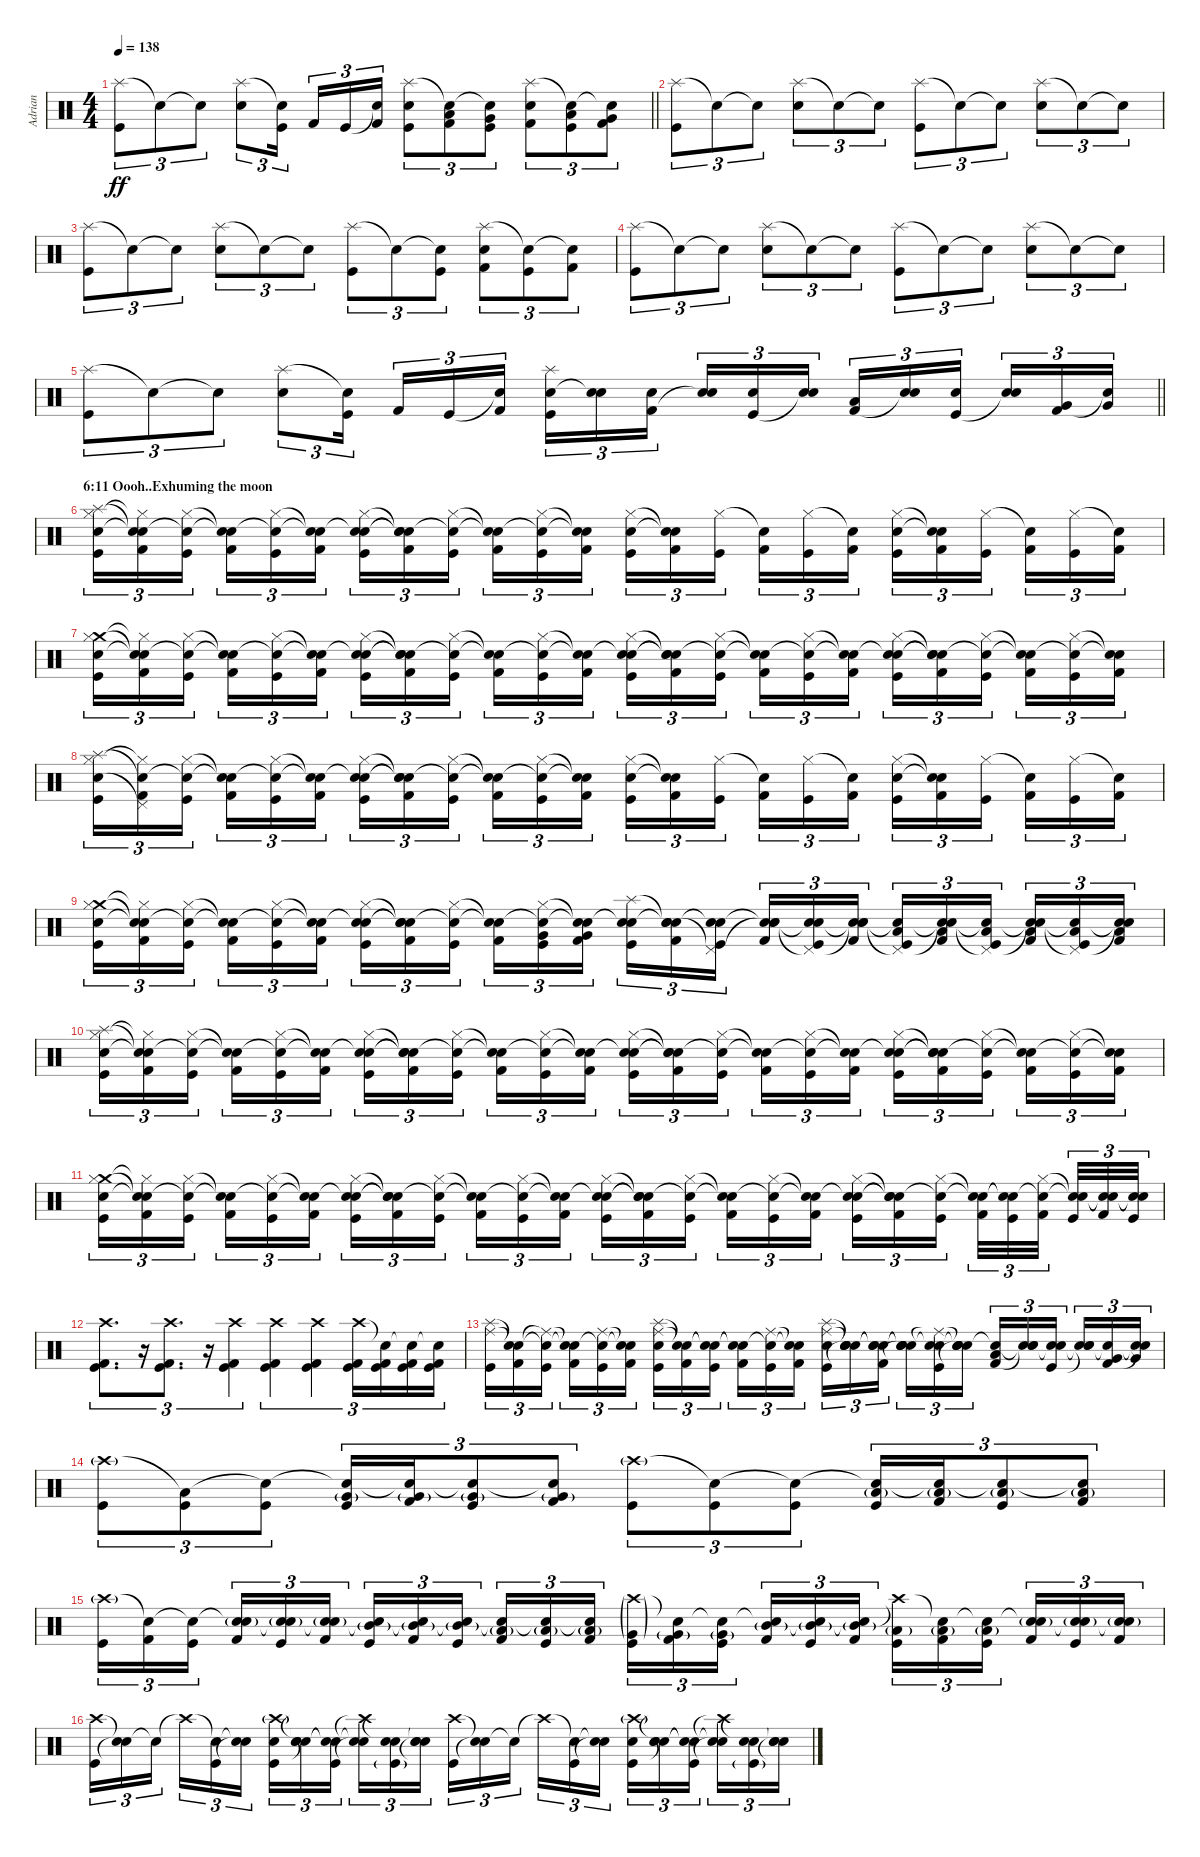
\track ("Adrian" "Adrian") {instrument percussion}
\staff {score}
\articulation defaults
\ts (4 4)
\tempo 138
\clef neutral
\barLineRight lightlight
\ks c
("Splash (hit)" "Kick (hit)").8{tu (3 2) dy ff} "Snare (hit)"{t}.8{tu (3 2)} "Snare (hit)"{t}.8{tu (3 2)} ("Splash (hit)" "Electric Snare (hit)").8{tu (3 2)} ("Snare (hit)"{t} "Kick (hit)").16{tu (3 2) beam splitsecondary} "Kick (hit) 2".16{tu (3 2)} "Kick (hit)".16{tu (3 2)} ("Snare (hit)"{t} "Kick (hit) 2").16{tu (3 2)} ("Splash (hit)" "Electric Snare (hit)" "Kick (hit)").8{tu (3 2)} ("Snare (hit)"{t} "Low Tom (hit)" "Kick (hit) 2").8{tu (3 2)} ("Snare (hit)"{t} "Very Low Tom (hit)" "Kick (hit)").8{tu (3 2)} ("Splash (hit)" "Electric Snare (hit)" "Kick (hit) 2").8{tu (3 2)} ("Snare (hit)"{t} "Low Tom (hit)" "Kick (hit)").8{tu (3 2)} ("Snare (hit)"{t} "Very Low Tom (hit)" "Kick (hit) 2").8{tu (3 2)} |
("Splash (hit)" "Kick (hit)").8{tu (3 2)} "Snare (hit)"{t}.8{tu (3 2)} "Snare (hit)"{t}.8{tu (3 2)} ("Splash (hit)" "Electric Snare (hit)").8{tu (3 2)} "Snare (hit)"{t}.8{tu (3 2)} "Snare (hit)"{t}.8{tu (3 2)} ("Splash (hit)" "Kick (hit)").8{tu (3 2)} "Snare (hit)"{t}.8{tu (3 2)} "Snare (hit)"{t}.8{tu (3 2)} ("Splash (hit)" "Electric Snare (hit)").8{tu (3 2)} "Snare (hit)"{t}.8{tu (3 2)} "Snare (hit)"{t}.8{tu (3 2)} |
("Splash (hit)" "Kick (hit)").8{tu (3 2)} "Snare (hit)"{t}.8{tu (3 2)} "Snare (hit)"{t}.8{tu (3 2)} ("Splash (hit)" "Electric Snare (hit)").8{tu (3 2)} "Snare (hit)"{t}.8{tu (3 2)} "Snare (hit)"{t}.8{tu (3 2)} ("Splash (hit)" "Kick (hit)").8{tu (3 2)} "Snare (hit)"{t}.8{tu (3 2)} ("Snare (hit)"{t} "Kick (hit)").8{tu (3 2)} ("Splash (hit)" "Electric Snare (hit)" "Kick (hit) 2").8{tu (3 2)} ("Snare (hit)"{t} "Kick (hit)").8{tu (3 2)} ("Snare (hit)"{t} "Kick (hit) 2").8{tu (3 2)} |
("Splash (hit)" "Kick (hit)").8{tu (3 2)} "Snare (hit)"{t}.8{tu (3 2)} "Snare (hit)"{t}.8{tu (3 2)} ("Splash (hit)" "Electric Snare (hit)").8{tu (3 2)} "Snare (hit)"{t}.8{tu (3 2)} "Snare (hit)"{t}.8{tu (3 2)} ("Splash (hit)" "Kick (hit)").8{tu (3 2)} "Snare (hit)"{t}.8{tu (3 2)} "Snare (hit)"{t}.8{tu (3 2)} ("Splash (hit)" "Electric Snare (hit)").8{tu (3 2)} "Snare (hit)"{t}.8{tu (3 2)} "Snare (hit)"{t}.8{tu (3 2)} |
\barLineRight lightlight
("Splash (hit)" "Kick (hit)").8{tu (3 2)} "Snare (hit)"{t}.8{tu (3 2)} "Snare (hit)"{t}.8{tu (3 2)} ("Splash (hit)" "Electric Snare (hit)").8{tu (3 2)} ("Snare (hit)"{t} "Kick (hit)").16{tu (3 2) beam splitsecondary} "Kick (hit) 2".16{tu (3 2)} "Kick (hit)".16{tu (3 2)} ("Snare (hit)"{t} "Kick (hit) 2").16{tu (3 2)} ("Splash (hit)" "Electric Snare (hit)" "Kick (hit)").16{tu (3 2)} ("Electric Snare (hit)" "Snare (hit)"{t}).16{tu (3 2)} ("Electric Snare (hit)" "Kick (hit) 2").16{tu (3 2) beam splitsecondary} ("Electric Snare (hit)" "Snare (hit)"{t}).16{tu (3 2)} ("Electric Snare (hit)" "Kick (hit)").16{tu (3 2)} ("Electric Snare (hit)" "Snare (hit)"{t}).16{tu (3 2)} ("Low Tom (hit)" "Kick (hit) 2").16{tu (3 2)} ("Electric Snare (hit)" "Snare (hit)"{t}).16{tu (3 2)} ("Electric Snare (hit)" "Kick (hit)").16{tu (3 2) beam splitsecondary} ("Electric Snare (hit)" "Snare (hit)"{t}).16{tu (3 2)} ("Very Low Tom (hit)" "Kick (hit) 2").16{tu (3 2)} ("Very Low Tom (hit)" "Snare (hit)"{t}).16{tu (3 2)} |
\section ("" "6:11 Oooh..Exhuming the moon")
("Splash (hit)" "Hi-Hat (closed)" "Electric Snare (hit)" "Kick (hit)").16{tu (3 2)} ("Snare (hit)"{t} "Hi-Hat (closed)"{t} "Snare (hit)"{t} "Kick (hit) 2").16{tu (3 2)} ("Snare (hit)"{t} "Hi-Hat (closed)" "Kick (hit)").16{tu (3 2) beam splitsecondary} ("Snare (hit)"{t} "Snare (hit)"{t} "Kick (hit) 2").16{tu (3 2)} ("Snare (hit)"{t} "Hi-Hat (closed)" "Kick (hit)").16{tu (3 2)} ("Snare (hit)"{t} "Snare (hit)"{t} "Kick (hit) 2").16{tu (3 2)} ("Snare (hit)"{t} "Hi-Hat (closed)" "Electric Snare (hit)" "Kick (hit)").16{tu (3 2)} ("Snare (hit)"{t} "Snare (hit)"{t} "Snare (hit)"{t} "Kick (hit) 2").16{tu (3 2)} ("Snare (hit)"{t} "Hi-Hat (closed)" "Kick (hit)").16{tu (3 2) beam splitsecondary} ("Snare (hit)"{t} "Snare (hit)"{t} "Kick (hit) 2").16{tu (3 2)} ("Snare (hit)"{t} "Hi-Hat (closed)" "Kick (hit)").16{tu (3 2)} ("Snare (hit)"{t} "Snare (hit)"{t} "Kick (hit) 2").16{tu (3 2)} ("Hi-Hat (closed)" "Electric Snare (hit)" "Kick (hit)").16{tu (3 2)} ("Snare (hit)"{t} "Snare (hit)"{t} "Kick (hit) 2").16{tu (3 2)} ("Hi-Hat (closed)" "Kick (hit)").16{tu (3 2) beam splitsecondary} ("Snare (hit)"{t} "Kick (hit) 2").16{tu (3 2)} ("Hi-Hat (closed)" "Kick (hit)").16{tu (3 2)} ("Snare (hit)"{t} "Kick (hit) 2").16{tu (3 2)} ("Hi-Hat (closed)" "Snare (hit) 2" "Kick (hit)").16{tu (3 2)} ("Snare (hit)"{t} "Snare (hit)"{t} "Kick (hit) 2").16{tu (3 2)} ("Hi-Hat (closed)" "Kick (hit)").16{tu (3 2) beam splitsecondary} ("Snare (hit)"{t} "Kick (hit) 2").16{tu (3 2)} ("Hi-Hat (closed)" "Kick (hit)").16{tu (3 2)} ("Snare (hit)"{t} "Kick (hit) 2").16{tu (3 2)} |
("Crash medium (hit)" "Hi-Hat (closed)" "Electric Snare (hit)" "Kick (hit)").16{tu (3 2)} ("Snare (hit)"{t} "Hi-Hat (closed)"{t} "Snare (hit)"{t} "Kick (hit) 2").16{tu (3 2)} ("Snare (hit)"{t} "Hi-Hat (closed)" "Kick (hit)").16{tu (3 2) beam splitsecondary} ("Snare (hit)"{t} "Snare (hit)"{t} "Kick (hit) 2").16{tu (3 2)} ("Snare (hit)"{t} "Hi-Hat (closed)" "Kick (hit)").16{tu (3 2)} ("Snare (hit)"{t} "Snare (hit)"{t} "Kick (hit) 2").16{tu (3 2)} ("Snare (hit)"{t} "Hi-Hat (closed)" "Electric Snare (hit)" "Kick (hit)").16{tu (3 2)} ("Snare (hit)"{t} "Snare (hit)"{t} "Snare (hit)"{t} "Kick (hit) 2").16{tu (3 2)} ("Snare (hit)"{t} "Hi-Hat (closed)" "Kick (hit)").16{tu (3 2) beam splitsecondary} ("Snare (hit)"{t} "Snare (hit)"{t} "Kick (hit) 2").16{tu (3 2)} ("Snare (hit)"{t} "Hi-Hat (closed)" "Kick (hit)").16{tu (3 2)} ("Snare (hit)"{t} "Snare (hit)"{t} "Kick (hit) 2").16{tu (3 2)} ("Snare (hit)"{t} "Hi-Hat (closed)" "Electric Snare (hit)" "Kick (hit)").16{tu (3 2)} ("Snare (hit)"{t} "Snare (hit)"{t} "Snare (hit)"{t} "Kick (hit) 2").16{tu (3 2)} ("Snare (hit)"{t} "Hi-Hat (closed)" "Kick (hit)").16{tu (3 2) beam splitsecondary} ("Snare (hit)"{t} "Snare (hit)"{t} "Kick (hit) 2").16{tu (3 2)} ("Snare (hit)"{t} "Hi-Hat (closed)" "Kick (hit)").16{tu (3 2)} ("Snare (hit)"{t} "Snare (hit)"{t} "Kick (hit) 2").16{tu (3 2)} ("Snare (hit)"{t} "Hi-Hat (closed)" "Electric Snare (hit)" "Kick (hit)").16{tu (3 2)} ("Snare (hit)"{t} "Snare (hit)"{t} "Snare (hit)"{t} "Kick (hit) 2").16{tu (3 2)} ("Snare (hit)"{t} "Hi-Hat (closed)" "Kick (hit)").16{tu (3 2) beam splitsecondary} ("Snare (hit)"{t} "Snare (hit)"{t} "Kick (hit) 2").16{tu (3 2)} ("Snare (hit)"{t} "Hi-Hat (closed)" "Kick (hit)").16{tu (3 2)} ("Snare (hit)"{t} "Snare (hit)"{t} "Kick (hit) 2").16{tu (3 2)} |
("Splash (hit)" "Hi-Hat (closed)" "Electric Snare (hit)" "Kick (hit)").16{tu (3 2)} ("Snare (hit)"{t} "Hi-Hat (closed)"{t} "Pedal Hi-Hat (hit)"{t} "Kick (hit) 2").16{tu (3 2)} ("Snare (hit)"{t} "Hi-Hat (closed)" "Kick (hit)").16{tu (3 2) beam splitsecondary} ("Snare (hit)"{t} "Snare (hit)"{t} "Kick (hit) 2").16{tu (3 2)} ("Snare (hit)"{t} "Hi-Hat (closed)" "Kick (hit)").16{tu (3 2)} ("Snare (hit)"{t} "Snare (hit)"{t} "Kick (hit) 2").16{tu (3 2)} ("Snare (hit)"{t} "Hi-Hat (closed)" "Electric Snare (hit)" "Kick (hit)").16{tu (3 2)} ("Snare (hit)"{t} "Snare (hit)"{t} "Snare (hit)"{t} "Kick (hit) 2").16{tu (3 2)} ("Snare (hit)"{t} "Hi-Hat (closed)" "Kick (hit)").16{tu (3 2) beam splitsecondary} ("Snare (hit)"{t} "Snare (hit)"{t} "Kick (hit) 2").16{tu (3 2)} ("Snare (hit)"{t} "Hi-Hat (closed)" "Kick (hit)").16{tu (3 2)} ("Snare (hit)"{t} "Snare (hit)"{t} "Kick (hit) 2").16{tu (3 2)} ("Hi-Hat (closed)" "Electric Snare (hit)" "Kick (hit)").16{tu (3 2)} ("Snare (hit)"{t} "Snare (hit)"{t} "Kick (hit) 2").16{tu (3 2)} ("Hi-Hat (closed)" "Kick (hit)").16{tu (3 2) beam splitsecondary} ("Snare (hit)"{t} "Kick (hit) 2").16{tu (3 2)} ("Hi-Hat (closed)" "Kick (hit)").16{tu (3 2)} ("Snare (hit)"{t} "Kick (hit) 2").16{tu (3 2)} ("Hi-Hat (closed)" "Electric Snare (hit)" "Kick (hit)").16{tu (3 2)} ("Snare (hit)"{t} "Snare (hit)"{t} "Kick (hit) 2").16{tu (3 2)} ("Hi-Hat (closed)" "Kick (hit)").16{tu (3 2) beam splitsecondary} ("Snare (hit)"{t} "Kick (hit) 2").16{tu (3 2)} ("Hi-Hat (closed)" "Kick (hit)").16{tu (3 2)} ("Snare (hit)"{t} "Kick (hit) 2").16{tu (3 2)} |
("Crash medium (hit)" "Hi-Hat (closed)" "Electric Snare (hit)" "Kick (hit)").16{tu (3 2)} ("Snare (hit)"{t} "Hi-Hat (closed)"{t} "Snare (hit)"{t} "Kick (hit) 2").16{tu (3 2)} ("Snare (hit)"{t} "Hi-Hat (closed)" "Kick (hit)").16{tu (3 2) beam splitsecondary} ("Snare (hit)"{t} "Snare (hit)"{t} "Kick (hit) 2").16{tu (3 2)} ("Snare (hit)"{t} "Hi-Hat (closed)" "Kick (hit)").16{tu (3 2)} ("Snare (hit)"{t} "Snare (hit)"{t} "Kick (hit) 2").16{tu (3 2)} ("Snare (hit)"{t} "Hi-Hat (closed)" "Electric Snare (hit)" "Kick (hit)").16{tu (3 2)} ("Snare (hit)"{t} "Snare (hit)"{t} "Snare (hit)"{t} "Kick (hit) 2").16{tu (3 2)} ("Snare (hit)"{t} "Hi-Hat (closed)" "Kick (hit)").16{tu (3 2) beam splitsecondary} ("Snare (hit)"{t} "Snare (hit)"{t} "Kick (hit) 2").16{tu (3 2)} ("Snare (hit)"{t} "Hi-Hat (closed)" "Very Low Tom (hit)" "Kick (hit)").16{tu (3 2)} ("Snare (hit)"{t} "Snare (hit)"{t} "Very Low Tom (hit)" "Kick (hit) 2").16{tu (3 2)} ("Snare (hit)"{t} "Splash (hit)" "Electric Snare (hit)" "Kick (hit)").16{tu (3 2)} ("Snare (hit)"{t} "Snare (hit)"{t} "Electric Snare (hit)" "Kick (hit) 2").16{tu (3 2)} ("Snare (hit)"{t} "Pedal Hi-Hat (hit)"{t} "Electric Snare (hit)" "Kick (hit)").16{tu (3 2) beam splitsecondary} ("Snare (hit)"{t} "Snare (hit)"{t} "Electric Snare (hit)" "Kick (hit) 2").16{tu (3 2)} ("Snare (hit)"{t} "Pedal Hi-Hat (hit)"{t} "Electric Snare (hit)" "Kick (hit)").16{tu (3 2)} ("Snare (hit)"{t} "Snare (hit)"{t} "Electric Snare (hit)" "Kick (hit) 2").16{tu (3 2)} ("Snare (hit)"{t} "Pedal Hi-Hat (hit)"{t} "Low Floor Tom (hit)" "Kick (hit)").16{tu (3 2)} ("Snare (hit)"{t} "Snare (hit)"{t} "Low Floor Tom (hit)" "Kick (hit) 2").16{tu (3 2)} ("Snare (hit)"{t} "Pedal Hi-Hat (hit)"{t} "Low Floor Tom (hit)" "Kick (hit)").16{tu (3 2) beam splitsecondary} ("Snare (hit)"{t} "Snare (hit)"{t} "Low Floor Tom (hit)" "Kick (hit) 2").16{tu (3 2)} ("Snare (hit)"{t} "Pedal Hi-Hat (hit)"{t} "Low Floor Tom (hit)" "Kick (hit)").16{tu (3 2)} ("Snare (hit)"{t} "Snare (hit)"{t} "Low Floor Tom (hit)" "Kick (hit) 2").16{tu (3 2)} |
("Splash (hit)" "Hi-Hat (closed)" "Electric Snare (hit)" "Kick (hit)").16{tu (3 2)} ("Snare (hit)"{t} "Hi-Hat (closed)"{t} "Snare (hit)"{t} "Kick (hit) 2").16{tu (3 2)} ("Snare (hit)"{t} "Hi-Hat (closed)" "Kick (hit)").16{tu (3 2) beam splitsecondary} ("Snare (hit)"{t} "Snare (hit)"{t} "Kick (hit) 2").16{tu (3 2)} ("Snare (hit)"{t} "Hi-Hat (closed)" "Kick (hit)").16{tu (3 2)} ("Snare (hit)"{t} "Snare (hit)"{t} "Kick (hit) 2").16{tu (3 2)} ("Snare (hit)"{t} "Hi-Hat (closed)" "Electric Snare (hit)" "Kick (hit)").16{tu (3 2)} ("Snare (hit)"{t} "Snare (hit)"{t} "Snare (hit)"{t} "Kick (hit) 2").16{tu (3 2)} ("Snare (hit)"{t} "Hi-Hat (closed)" "Kick (hit)").16{tu (3 2) beam splitsecondary} ("Snare (hit)"{t} "Snare (hit)"{t} "Kick (hit) 2").16{tu (3 2)} ("Snare (hit)"{t} "Hi-Hat (closed)" "Kick (hit)").16{tu (3 2)} ("Snare (hit)"{t} "Snare (hit)"{t} "Kick (hit) 2").16{tu (3 2)} ("Snare (hit)"{t} "Hi-Hat (closed)" "Electric Snare (hit)" "Kick (hit)").16{tu (3 2)} ("Snare (hit)"{t} "Snare (hit)"{t} "Snare (hit)"{t} "Kick (hit) 2").16{tu (3 2)} ("Snare (hit)"{t} "Hi-Hat (closed)" "Kick (hit)").16{tu (3 2) beam splitsecondary} ("Snare (hit)"{t} "Snare (hit)"{t} "Kick (hit) 2").16{tu (3 2)} ("Snare (hit)"{t} "Hi-Hat (closed)" "Kick (hit)").16{tu (3 2)} ("Snare (hit)"{t} "Snare (hit)"{t} "Kick (hit) 2").16{tu (3 2)} ("Snare (hit)"{t} "Hi-Hat (closed)" "Electric Snare (hit)" "Kick (hit)").16{tu (3 2)} ("Snare (hit)"{t} "Snare (hit)"{t} "Snare (hit)"{t} "Kick (hit) 2").16{tu (3 2)} ("Snare (hit)"{t} "Hi-Hat (closed)" "Kick (hit)").16{tu (3 2) beam splitsecondary} ("Snare (hit)"{t} "Snare (hit)"{t} "Kick (hit) 2").16{tu (3 2)} ("Snare (hit)"{t} "Hi-Hat (closed)" "Kick (hit)").16{tu (3 2)} ("Snare (hit)"{t} "Snare (hit)"{t} "Kick (hit) 2").16{tu (3 2)} |
("Crash medium (hit)" "Hi-Hat (closed)" "Electric Snare (hit)" "Kick (hit)").16{tu (3 2)} ("Snare (hit)"{t} "Hi-Hat (closed)"{t} "Snare (hit)"{t} "Kick (hit) 2").16{tu (3 2)} ("Snare (hit)"{t} "Hi-Hat (closed)" "Kick (hit)").16{tu (3 2) beam splitsecondary} ("Snare (hit)"{t} "Snare (hit)"{t} "Kick (hit) 2").16{tu (3 2)} ("Snare (hit)"{t} "Hi-Hat (closed)" "Kick (hit)").16{tu (3 2)} ("Snare (hit)"{t} "Snare (hit)"{t} "Kick (hit) 2").16{tu (3 2)} ("Snare (hit)"{t} "Hi-Hat (closed)" "Electric Snare (hit)" "Kick (hit)").16{tu (3 2)} ("Snare (hit)"{t} "Snare (hit)"{t} "Snare (hit)"{t} "Kick (hit) 2").16{tu (3 2)} ("Snare (hit)"{t} "Hi-Hat (closed)" "Kick (hit)").16{tu (3 2) beam splitsecondary} ("Snare (hit)"{t} "Snare (hit)"{t} "Kick (hit) 2").16{tu (3 2)} ("Snare (hit)"{t} "Hi-Hat (closed)" "Kick (hit)").16{tu (3 2)} ("Snare (hit)"{t} "Snare (hit)"{t} "Kick (hit) 2").16{tu (3 2)} ("Snare (hit)"{t} "Hi-Hat (closed)" "Electric Snare (hit)" "Kick (hit)").16{tu (3 2)} ("Snare (hit)"{t} "Snare (hit)"{t} "Snare (hit)"{t} "Kick (hit) 2").16{tu (3 2)} ("Snare (hit)"{t} "Hi-Hat (closed)" "Kick (hit)").16{tu (3 2) beam splitsecondary} ("Snare (hit)"{t} "Snare (hit)"{t} "Kick (hit) 2").16{tu (3 2)} ("Snare (hit)"{t} "Hi-Hat (closed)" "Kick (hit)").16{tu (3 2)} ("Snare (hit)"{t} "Snare (hit)"{t} "Kick (hit) 2").16{tu (3 2)} ("Snare (hit)"{t} "Hi-Hat (closed)" "Electric Snare (hit)" "Kick (hit)").16{tu (3 2)} ("Snare (hit)"{t} "Snare (hit)"{t} "Snare (hit)"{t} "Kick (hit) 2").16{tu (3 2)} ("Snare (hit)"{t} "Hi-Hat (closed)" "Kick (hit)").16{tu (3 2) beam splitsecondary} ("Snare (hit)"{t} "Snare (hit)"{t} "Kick (hit) 2").32{tu (3 2)} ("Snare (hit)"{t} "Snare (hit)"{t} "Kick (hit)").32{tu (3 2)} ("Snare (hit)"{t} "Hi-Hat (closed)" "Kick (hit) 2").32{tu (3 2) beam splitsecondary} ("Snare (hit)"{t} "Snare (hit)"{t} "Kick (hit)").32{tu (3 2)} ("Snare (hit)"{t} "Snare (hit)"{t} "Kick (hit) 2").32{tu (3 2)} ("Snare (hit)"{t} "Snare (hit)"{t} "Kick (hit)").32{tu (3 2)} |
("Crash high (hit)" "Kick (hit) 2" "Kick (hit)").8{d tu (3 2)} r.16{tu (3 2)} ("Crash high (hit)" "Kick (hit)" "Kick (hit) 2").8{d tu (3 2)} r.16{tu (3 2)} ("Crash high (hit)" "Kick (hit) 2" "Kick (hit)").4{tu (3 2)} ("Crash high (hit)" "Kick (hit)" "Kick (hit) 2").4{tu (3 2)} ("Crash high (hit)" "Kick (hit) 2" "Kick (hit)").4{tu (3 2)} ("Crash high (hit)" "Kick (hit)" "Kick (hit) 2").16{tu (3 2)} ("Snare (hit)"{t} "Kick (hit) 2" "Kick (hit)").16{tu (3 2)} ("Snare (hit)"{t} "Kick (hit)" "Kick (hit) 2").16{tu (3 2)} ("Snare (hit)"{t} "Kick (hit) 2" "Kick (hit)").16{tu (3 2)} |
("Splash (hit)" "Ride (middle)" "Kick (hit)").16{tu (3 2)} ("Snare (hit)"{t} "Snare (hit)"{t} "Kick (hit) 2").16{tu (3 2)} ("Snare (hit)"{t} "Ride (middle)"{t} "Kick (hit)").16{tu (3 2) beam splitsecondary} ("Snare (hit)"{t} "Snare (hit)"{t} "Kick (hit) 2").16{tu (3 2)} ("Snare (hit)"{t} "Ride (middle)" "Kick (hit)").16{tu (3 2)} ("Snare (hit)"{t} "Snare (hit)"{t} "Kick (hit) 2").16{tu (3 2)} ("Splash (hit)" "Ride (middle)" "Electric Snare (hit)" "Kick (hit)").16{tu (3 2)} ("Snare (hit)"{t} "Snare (hit)"{t} "Kick (hit) 2").16{tu (3 2)} ("Snare (hit)"{t} "Snare (hit)"{t} "Kick (hit)").16{tu (3 2) beam splitsecondary} ("Snare (hit)"{t} "Snare (hit)"{t} "Kick (hit) 2").16{tu (3 2)} ("Snare (hit)"{t} "Ride (middle)" "Kick (hit)").16{tu (3 2)} ("Snare (hit)"{t} "Snare (hit)"{t} "Kick (hit) 2").16{tu (3 2)} ("Splash (hit)" "Ride (middle)" "Electric Snare (hit)" "Kick (hit)").16{tu (3 2)} ("Snare (hit)"{t} "Snare (hit)"{t} "Electric Snare (hit)" "Snare (hit)"{t}).16{tu (3 2)} ("Snare (hit)"{t} "Snare (hit)"{t} "Electric Snare (hit)" "Kick (hit) 2").16{tu (3 2) beam splitsecondary} ("Snare (hit)"{t} "Snare (hit)"{t} "Electric Snare (hit)" "Snare (hit)"{t}).16{tu (3 2)} ("Snare (hit)"{t} "Ride (middle)"{t} "Electric Snare (hit)" "Kick (hit)").16{tu (3 2)} ("Snare (hit)"{t} "Snare (hit)"{t} "Electric Snare (hit)" "Snare (hit)"{t}).16{tu (3 2)} ("Snare (hit)"{t} "Low Tom (hit)" "Kick (hit) 2").16{tu (3 2)} ("Snare (hit)"{t} "Electric Snare (hit)" "Snare (hit)"{t}).16{tu (3 2)} ("Snare (hit)"{t} "Electric Snare (hit)" "Kick (hit)").16{tu (3 2) beam splitsecondary} ("Snare (hit)"{t} "Electric Snare (hit)" "Snare (hit)"{t}).16{tu (3 2)} ("Snare (hit)"{t} "Very Low Tom (hit)" "Kick (hit) 2").16{tu (3 2)} ("Snare (hit)"{t} "Very Low Tom (hit)" "Snare (hit)"{t}).16{tu (3 2)} |
("Crash high (hit)"{g} "Kick (hit)").8{tu (3 2)} ("Low Floor Tom (hit)"{t} "Kick (hit)").8{tu (3 2)} ("Snare (hit)"{t} "Kick (hit)").8{tu (3 2)} ("Snare (hit)"{t} "Very Low Tom (hit)"{g} "Kick (hit)").16{tu (3 2)} ("Snare (hit)"{t} "Very Low Tom (hit)"{g} "Kick (hit) 2").16{tu (3 2)} ("Snare (hit)"{t} "Very Low Tom (hit)"{g} "Kick (hit)").8{tu (3 2)} ("Snare (hit)"{t} "Very Low Tom (hit)"{g} "Kick (hit) 2").8{tu (3 2)} ("Crash high (hit)"{g} "Kick (hit)").8{tu (3 2)} ("Snare (hit)"{t} "Kick (hit)").8{tu (3 2)} ("Snare (hit)"{t} "Kick (hit)").8{tu (3 2)} ("Snare (hit)"{t} "Low Tom (hit)"{g} "Kick (hit)").16{tu (3 2)} ("Snare (hit)"{t} "Low Tom (hit)"{g} "Kick (hit) 2").16{tu (3 2)} ("Snare (hit)"{t} "Low Tom (hit)"{g} "Kick (hit)").8{tu (3 2)} ("Snare (hit)"{t} "Low Tom (hit)"{g} "Kick (hit) 2").8{tu (3 2)} |
("Crash high (hit)"{g} "Kick (hit)").16{tu (3 2)} ("Snare (hit)"{t} "Kick (hit) 2").16{tu (3 2)} ("Snare (hit)"{t} "Kick (hit)").16{tu (3 2) beam splitsecondary} ("Snare (hit)"{t} "Electric Snare (hit)"{g} "Kick (hit) 2").16{tu (3 2)} ("Snare (hit)"{t} "Electric Snare (hit)"{g} "Kick (hit)").16{tu (3 2)} ("Snare (hit)"{t} "Electric Snare (hit)"{g} "Kick (hit) 2").16{tu (3 2)} ("Snare (hit)"{t} "Mid Tom (hit)"{g} "Kick (hit)").16{tu (3 2)} ("Snare (hit)"{t} "Mid Tom (hit)"{g} "Kick (hit) 2").16{tu (3 2)} ("Snare (hit)"{t} "Mid Tom (hit)"{g} "Kick (hit)").16{tu (3 2) beam splitsecondary} ("Snare (hit)"{t} "Low Tom (hit)"{g} "Kick (hit) 2").16{tu (3 2)} ("Snare (hit)"{t} "Low Tom (hit)"{g} "Kick (hit)").16{tu (3 2)} ("Snare (hit)"{t} "Low Tom (hit)"{g} "Kick (hit) 2").16{tu (3 2)} ("Crash high (hit)"{g} "Very Low Tom (hit)"{g} "Kick (hit)").16{tu (3 2)} ("Snare (hit)"{t} "Very Low Tom (hit)"{g} "Kick (hit) 2").16{tu (3 2)} ("Snare (hit)"{t} "Very Low Tom (hit)"{g} "Kick (hit)").16{tu (3 2) beam splitsecondary} ("Snare (hit)"{t} "Mid Tom (hit)"{g} "Kick (hit) 2").16{tu (3 2)} ("Snare (hit)"{t} "Mid Tom (hit)"{g} "Kick (hit)").16{tu (3 2)} ("Snare (hit)"{t} "Mid Tom (hit)"{g} "Kick (hit) 2").16{tu (3 2)} ("Crash high (hit)"{t} "Low Tom (hit)"{g} "Kick (hit)").16{tu (3 2)} ("Snare (hit)"{t} "Low Tom (hit)"{g} "Kick (hit) 2").16{tu (3 2)} ("Snare (hit)"{t} "Low Tom (hit)"{g} "Kick (hit)").16{tu (3 2) beam splitsecondary} ("Snare (hit)"{t} "Electric Snare (hit)"{g} "Kick (hit) 2").16{tu (3 2)} ("Snare (hit)"{t} "Electric Snare (hit)"{g} "Kick (hit)").16{tu (3 2)} ("Snare (hit)"{t} "Electric Snare (hit)"{g} "Kick (hit) 2").16{tu (3 2)} |
("Crash high (hit)" "Kick (hit)").16{tu (3 2)} ("Snare (hit)"{t} "Snare (hit)"{t}).16{tu (3 2)} "Snare (hit)"{t}.16{tu (3 2) beam splitsecondary} "Crash high (hit)"{t}.16{tu (3 2)} ("Snare (hit)"{t} "Kick (hit)").16{tu (3 2)} ("Snare (hit)"{t} "Snare (hit)"{t}).16{tu (3 2)} ("Crash high (hit)"{g} "Electric Snare (hit)" "Kick (hit)").16{tu (3 2)} ("Snare (hit)"{t} "Snare (hit)"{t} "Snare (hit)"{t}).16{tu (3 2)} ("Snare (hit)"{t} "Snare (hit)"{t} "Kick (hit)").16{tu (3 2) beam splitsecondary} ("Crash high (hit)"{t} "Snare (hit)"{t} "Snare (hit)"{t}).16{tu (3 2)} ("Snare (hit)"{t} "Snare (hit)"{t} "Kick (hit)"{g}).16{tu (3 2)} ("Snare (hit)"{t} "Snare (hit)"{t} "Snare (hit)"{t}).16{tu (3 2)} ("Crash high (hit)" "Kick (hit)").16{tu (3 2)} ("Snare (hit)"{t} "Snare (hit)"{t}).16{tu (3 2)} "Snare (hit)"{t}.16{tu (3 2) beam splitsecondary} "Crash high (hit)"{t}.16{tu (3 2)} ("Snare (hit)"{t} "Kick (hit)").16{tu (3 2)} ("Snare (hit)"{t} "Snare (hit)"{t}).16{tu (3 2)} ("Crash high (hit)"{g} "Electric Snare (hit)" "Kick (hit)").16{tu (3 2)} ("Snare (hit)"{t} "Snare (hit)"{t} "Snare (hit)"{t}).16{tu (3 2)} ("Snare (hit)"{t} "Snare (hit)"{t} "Kick (hit)").16{tu (3 2) beam splitsecondary} ("Crash high (hit)"{t} "Snare (hit)"{t} "Snare (hit)"{t}).16{tu (3 2)} ("Snare (hit)"{t} "Snare (hit)"{t} "Kick (hit)"{g}).16{tu (3 2)} ("Snare (hit)"{t} "Snare (hit)"{t} "Snare (hit)"{t}).16{tu (3 2)}
